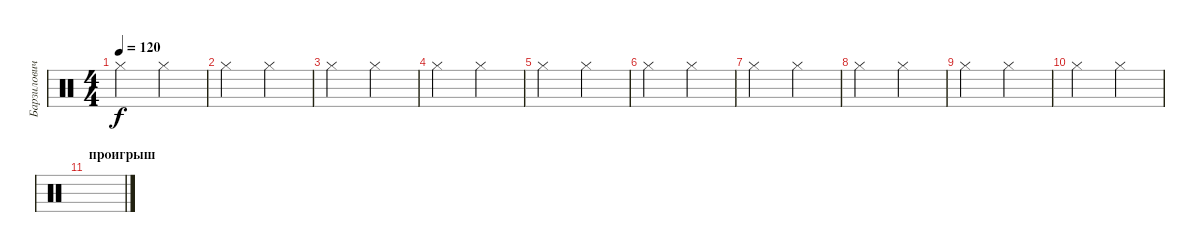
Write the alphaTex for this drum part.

\track ("Барзилович" "Барзилович") {instrument percussion}
\staff {score}
\articulation defaults
\ts (4 4)
\tempo 120
\clef neutral
\ks c "Hi-Hat (closed)".2{dy f} "Hi-Hat (closed)".2
|
"Hi-Hat (closed)".2 "Hi-Hat (closed)".2 |
"Hi-Hat (closed)".2 "Hi-Hat (closed)".2 |
"Hi-Hat (closed)".2 "Hi-Hat (closed)".2 |
"Hi-Hat (closed)".2 "Hi-Hat (closed)".2 |
"Hi-Hat (closed)".2 "Hi-Hat (closed)".2 |
"Hi-Hat (closed)".2 "Hi-Hat (closed)".2 |
"Hi-Hat (closed)".2 "Hi-Hat (closed)".2 |
"Hi-Hat (closed)".2 "Hi-Hat (closed)".2 |
"Hi-Hat (closed)".2 "Hi-Hat (closed)".2 |
\section ("" "проигрыш")
